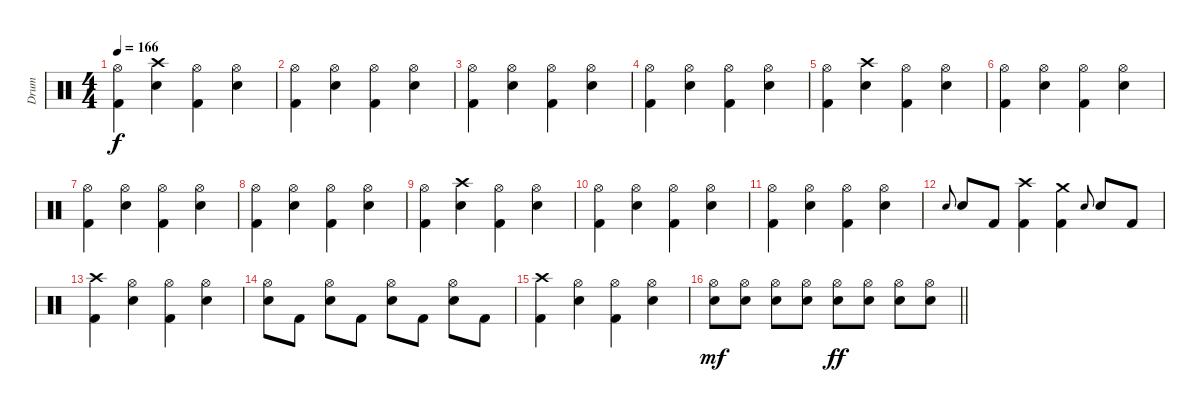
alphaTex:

\track ("Drum" "Drum") {instrument percussion}
\staff {score}
\articulation defaults
\ts (4 4)
\tempo 166
\clef neutral
\ks c
("Hi-Hat (open)" "Kick (hit) 2").4{dy f} ("Crash high (hit)" "Snare (hit) 2").4 ("Hi-Hat (open)" "Kick (hit) 2").4 ("Hi-Hat (open)" "Snare (hit) 2").4 |
("Hi-Hat (open)" "Kick (hit) 2").4 ("Hi-Hat (open)" "Snare (hit) 2").4 ("Hi-Hat (open)" "Kick (hit) 2").4 ("Hi-Hat (open)" "Snare (hit) 2").4 |
("Hi-Hat (open)" "Kick (hit) 2").4 ("Hi-Hat (open)" "Snare (hit) 2").4 ("Hi-Hat (open)" "Kick (hit) 2").4 ("Hi-Hat (open)" "Snare (hit) 2").4 |
("Hi-Hat (open)" "Kick (hit) 2").4 ("Hi-Hat (open)" "Snare (hit) 2").4 ("Hi-Hat (open)" "Kick (hit) 2").4 ("Hi-Hat (open)" "Snare (hit) 2").4 |
("Hi-Hat (open)" "Kick (hit) 2").4 ("Crash high (hit)" "Snare (hit) 2").4 ("Hi-Hat (open)" "Kick (hit) 2").4 ("Hi-Hat (open)" "Snare (hit) 2").4 |
("Hi-Hat (open)" "Kick (hit) 2").4 ("Hi-Hat (open)" "Snare (hit) 2").4 ("Hi-Hat (open)" "Kick (hit) 2").4 ("Hi-Hat (open)" "Snare (hit) 2").4 |
("Hi-Hat (open)" "Kick (hit) 2").4 ("Hi-Hat (open)" "Snare (hit) 2").4 ("Hi-Hat (open)" "Kick (hit) 2").4 ("Hi-Hat (open)" "Snare (hit) 2").4 |
("Hi-Hat (open)" "Kick (hit) 2").4 ("Hi-Hat (open)" "Snare (hit) 2").4 ("Hi-Hat (open)" "Kick (hit) 2").4 ("Hi-Hat (open)" "Snare (hit) 2").4 |
("Hi-Hat (open)" "Kick (hit) 2").4 ("Crash high (hit)" "Snare (hit) 2").4 ("Hi-Hat (open)" "Kick (hit) 2").4 ("Hi-Hat (open)" "Snare (hit) 2").4 |
("Hi-Hat (open)" "Kick (hit) 2").4 ("Hi-Hat (open)" "Snare (hit) 2").4 ("Hi-Hat (open)" "Kick (hit) 2").4 ("Hi-Hat (open)" "Snare (hit) 2").4 |
("Hi-Hat (open)" "Kick (hit) 2").4 ("Hi-Hat (open)" "Snare (hit) 2").4 ("Hi-Hat (open)" "Kick (hit) 2").4 ("Hi-Hat (open)" "Snare (hit) 2").4 |
"Snare (hit) 2".8{gr onbeat} "Snare (hit) 2".8 "Kick (hit) 2".8 ("Crash high (hit)" "Kick (hit) 2").4 ("Crash medium (hit)" "Kick (hit) 2").4 "Snare (hit) 2".8{gr onbeat} "Snare (hit) 2".8 "Kick (hit) 2".8 |
("Crash high (hit)" "Kick (hit) 2").4 ("Hi-Hat (open)" "Snare (hit) 2").4 ("Hi-Hat (open)" "Kick (hit) 2").4 ("Hi-Hat (open)" "Snare (hit) 2").4 |
("Hi-Hat (open)" "Snare (hit) 2").8 "Kick (hit) 2".8 ("Hi-Hat (open)" "Snare (hit) 2").8 "Kick (hit) 2".8 ("Hi-Hat (open)" "Snare (hit) 2").8 "Kick (hit) 2".8 ("Hi-Hat (open)" "Snare (hit) 2").8 "Kick (hit) 2".8 |
("Crash high (hit)" "Kick (hit) 2").4 ("Hi-Hat (open)" "Snare (hit) 2").4 ("Hi-Hat (open)" "Kick (hit) 2").4 ("Hi-Hat (open)" "Snare (hit) 2").4 |
\barLineRight lightlight
("Hi-Hat (open)" "Snare (hit) 2").8{dy mf} ("Hi-Hat (open)" "Snare (hit) 2").8 ("Hi-Hat (open)" "Snare (hit) 2").8 ("Hi-Hat (open)" "Snare (hit) 2").8 ("Hi-Hat (open)" "Snare (hit) 2").8{dy ff} ("Hi-Hat (open)" "Snare (hit) 2").8 ("Hi-Hat (open)" "Snare (hit) 2").8 ("Hi-Hat (open)" "Snare (hit) 2").8
